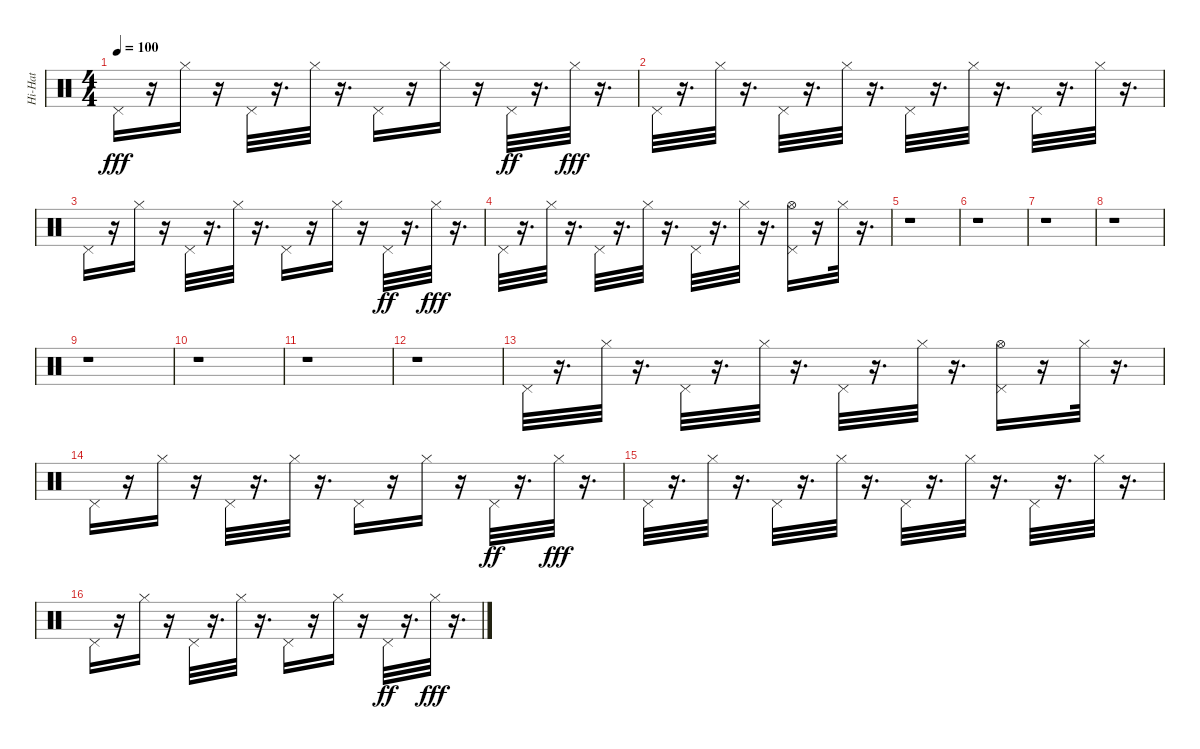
\track ("Hi-Hat" "Hi-Hat") {instrument percussion}
\staff {score}
\articulation defaults
\ts (4 4)
\tempo 100
\clef neutral
\ks c "Pedal Hi-Hat (hit)".16{dy fff}
r.16 "Hi-Hat (closed)".16 r.16 "Pedal Hi-Hat (hit)".32 r.16{d} "Hi-Hat (closed)".32 r.16{d} "Pedal Hi-Hat (hit)".16 r.16 "Hi-Hat (closed)".16 r.16 "Pedal Hi-Hat (hit)".32{dy ff} r.16{d} "Hi-Hat (closed)".32{dy fff} r.16{d} |
"Pedal Hi-Hat (hit)".32 r.16{d} "Hi-Hat (closed)".32 r.16{d} "Pedal Hi-Hat (hit)".32 r.16{d} "Hi-Hat (closed)".32 r.16{d} "Pedal Hi-Hat (hit)".32 r.16{d} "Hi-Hat (closed)".32 r.16{d} "Pedal Hi-Hat (hit)".32 r.16{d} "Hi-Hat (closed)".32 r.16{d} |
"Pedal Hi-Hat (hit)".16 r.16 "Hi-Hat (closed)".16 r.16 "Pedal Hi-Hat (hit)".32 r.16{d} "Hi-Hat (closed)".32 r.16{d} "Pedal Hi-Hat (hit)".16 r.16 "Hi-Hat (closed)".16 r.16 "Pedal Hi-Hat (hit)".32{dy ff} r.16{d} "Hi-Hat (closed)".32{dy fff} r.16{d} |
"Pedal Hi-Hat (hit)".32 r.16{d} "Hi-Hat (closed)".32 r.16{d} "Pedal Hi-Hat (hit)".32 r.16{d} "Hi-Hat (closed)".32 r.16{d} "Pedal Hi-Hat (hit)".32 r.16{d} "Hi-Hat (closed)".32 r.16{d} ("Pedal Hi-Hat (hit)" "Hi-Hat (open)").16 r.16 "Hi-Hat (closed)".32 r.16{d} |
r.1 |
r.1 |
r.1 |
r.1 |
r.1 |
r.1 |
r.1 |
r.1 |
"Pedal Hi-Hat (hit)".32 r.16{d} "Hi-Hat (closed)".32 r.16{d} "Pedal Hi-Hat (hit)".32 r.16{d} "Hi-Hat (closed)".32 r.16{d} "Pedal Hi-Hat (hit)".32 r.16{d} "Hi-Hat (closed)".32 r.16{d} ("Pedal Hi-Hat (hit)" "Hi-Hat (open)").16 r.16 "Hi-Hat (closed)".32 r.16{d} |
"Pedal Hi-Hat (hit)".16 r.16 "Hi-Hat (closed)".16 r.16 "Pedal Hi-Hat (hit)".32 r.16{d} "Hi-Hat (closed)".32 r.16{d} "Pedal Hi-Hat (hit)".16 r.16 "Hi-Hat (closed)".16 r.16 "Pedal Hi-Hat (hit)".32{dy ff} r.16{d} "Hi-Hat (closed)".32{dy fff} r.16{d} |
"Pedal Hi-Hat (hit)".32 r.16{d} "Hi-Hat (closed)".32 r.16{d} "Pedal Hi-Hat (hit)".32 r.16{d} "Hi-Hat (closed)".32 r.16{d} "Pedal Hi-Hat (hit)".32 r.16{d} "Hi-Hat (closed)".32 r.16{d} "Pedal Hi-Hat (hit)".32 r.16{d} "Hi-Hat (closed)".32 r.16{d} |
"Pedal Hi-Hat (hit)".16 r.16 "Hi-Hat (closed)".16 r.16 "Pedal Hi-Hat (hit)".32 r.16{d} "Hi-Hat (closed)".32 r.16{d} "Pedal Hi-Hat (hit)".16 r.16 "Hi-Hat (closed)".16 r.16 "Pedal Hi-Hat (hit)".32{dy ff} r.16{d} "Hi-Hat (closed)".32{dy fff} r.16{d}
